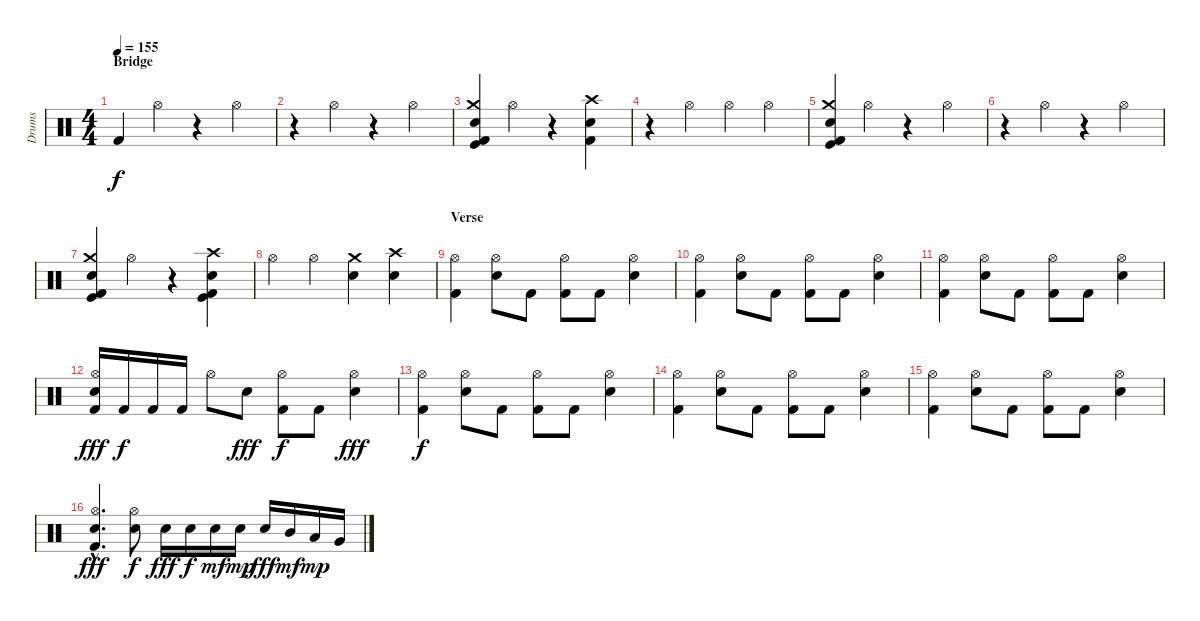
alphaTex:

\track ("Drums" "Drums") {instrument percussion}
\staff {score}
\articulation defaults
\ts (4 4)
\section ("" "Bridge")
\tempo 155
\clef neutral
\ks c "Kick (hit) 2".4{dy f} "Hi-Hat (open)".4
r.4 "Hi-Hat (open)".4 |
r.4 "Hi-Hat (open)".4 r.4 "Hi-Hat (open)".4 |
("Crash medium (hit)" "Snare (hit) 2" "Kick (hit)" "Kick (hit) 2").4 "Hi-Hat (open)".4 r.4 ("Crash high (hit)" "Snare (hit) 2" "Kick (hit) 2").4 |
r.4 "Hi-Hat (open)".4 "Hi-Hat (open)".4 "Hi-Hat (open)".4 |
("Crash medium (hit)" "Snare (hit) 2" "Kick (hit)" "Kick (hit) 2").4 "Hi-Hat (open)".4 r.4 "Hi-Hat (open)".4 |
r.4 "Hi-Hat (open)".4 r.4 "Hi-Hat (open)".4 |
("Crash medium (hit)" "Snare (hit) 2" "Kick (hit)" "Kick (hit) 2").4 "Hi-Hat (open)".4 r.4 ("Crash high (hit)" "Snare (hit) 2" "Kick (hit)" "Kick (hit) 2").4 |
"Hi-Hat (open)".4 "Hi-Hat (open)".4 ("Crash medium (hit)" "Snare (hit) 2").4 ("Crash high (hit)" "Snare (hit) 2").4 |
\section ("" "Verse")
("Hi-Hat (open)" "Kick (hit) 2").4 ("Hi-Hat (open)" "Snare (hit) 2").8 "Kick (hit) 2".8 ("Hi-Hat (open)" "Kick (hit) 2").8 "Kick (hit) 2".8 ("Hi-Hat (open)" "Snare (hit) 2").4 |
("Hi-Hat (open)" "Kick (hit) 2").4 ("Hi-Hat (open)" "Snare (hit) 2").8 "Kick (hit) 2".8 ("Hi-Hat (open)" "Kick (hit) 2").8 "Kick (hit) 2".8 ("Hi-Hat (open)" "Snare (hit) 2").4 |
("Hi-Hat (open)" "Kick (hit) 2").4 ("Hi-Hat (open)" "Snare (hit) 2").8 "Kick (hit) 2".8 ("Hi-Hat (open)" "Kick (hit) 2").8 "Kick (hit) 2".8 ("Hi-Hat (open)" "Snare (hit) 2").4 |
("Hi-Hat (open)" "Snare (hit) 2" "Kick (hit) 2").16{dy fff} "Kick (hit) 2".16{dy f} "Kick (hit) 2".16 "Kick (hit) 2".16 "Hi-Hat (open)".8 "Snare (hit) 2".8{dy fff} ("Hi-Hat (open)" "Kick (hit) 2").8{dy f} "Kick (hit) 2".8 ("Hi-Hat (open)" "Snare (hit) 2").4{dy fff} |
("Hi-Hat (open)" "Kick (hit) 2").4{dy f} ("Hi-Hat (open)" "Snare (hit) 2").8 "Kick (hit) 2".8 ("Hi-Hat (open)" "Kick (hit) 2").8 "Kick (hit) 2".8 ("Hi-Hat (open)" "Snare (hit) 2").4 |
("Hi-Hat (open)" "Kick (hit) 2").4 ("Hi-Hat (open)" "Snare (hit) 2").8 "Kick (hit) 2".8 ("Hi-Hat (open)" "Kick (hit) 2").8 "Kick (hit) 2".8 ("Hi-Hat (open)" "Snare (hit) 2").4 |
("Hi-Hat (open)" "Kick (hit) 2").4 ("Hi-Hat (open)" "Snare (hit) 2").8 "Kick (hit) 2".8 ("Hi-Hat (open)" "Kick (hit) 2").8 "Kick (hit) 2".8 ("Hi-Hat (open)" "Snare (hit) 2").4 |
("Hi-Hat (open)"{hac} "Snare (hit) 2"{hac} "Kick (hit) 2"{hac}).4{d dy fff} ("Hi-Hat (open)" "Snare (hit) 2").8{dy f} "Snare (hit) 2".16{dy fff} "Snare (hit) 2".16{dy f} "Snare (hit) 2".16{dy mf} "Snare (hit) 2".16{dy mp} "Snare (hit) 2".16{dy fff} "Mid Tom (hit)".16{dy mf} "Low Tom (hit)".16{dy mp} "Very Low Tom (hit)".16
